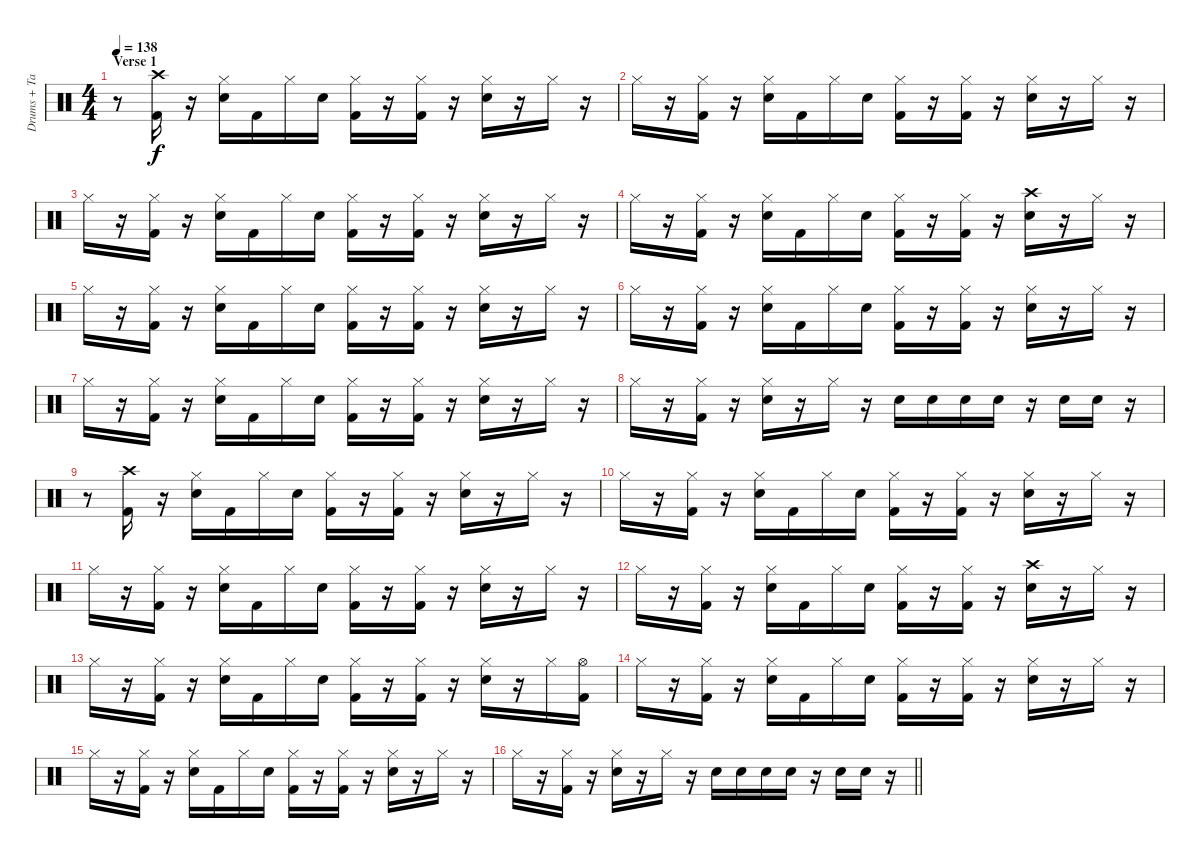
\track ("Drums + Tambourine" "Drums + Ta") {instrument percussion}
\staff {score}
\articulation defaults
\ts (4 4)
\section ("" "Verse 1")
\tempo 138
\clef neutral
\ks c
r.8{dy f} ("Crash high (hit)" "Kick (hit) 2").16 r.16 ("Hi-Hat (closed)" "Electric Snare (hit)").16 "Kick (hit) 2".16 "Hi-Hat (closed)".16 "Electric Snare (hit)".16 ("Hi-Hat (closed)" "Kick (hit) 2").16 r.16 ("Hi-Hat (closed)" "Kick (hit) 2").16 r.16 ("Hi-Hat (closed)" "Electric Snare (hit)").16 r.16 "Hi-Hat (closed)".16 r.16 |
"Hi-Hat (closed)".16 r.16 ("Hi-Hat (closed)" "Kick (hit) 2").16 r.16 ("Hi-Hat (closed)" "Electric Snare (hit)").16 "Kick (hit) 2".16 "Hi-Hat (closed)".16 "Electric Snare (hit)".16 ("Hi-Hat (closed)" "Kick (hit) 2").16 r.16 ("Hi-Hat (closed)" "Kick (hit) 2").16 r.16 ("Hi-Hat (closed)" "Electric Snare (hit)").16 r.16 "Hi-Hat (closed)".16 r.16 |
"Hi-Hat (closed)".16 r.16 ("Hi-Hat (closed)" "Kick (hit) 2").16 r.16 ("Hi-Hat (closed)" "Electric Snare (hit)").16 "Kick (hit) 2".16 "Hi-Hat (closed)".16 "Electric Snare (hit)".16 ("Hi-Hat (closed)" "Kick (hit) 2").16 r.16 ("Hi-Hat (closed)" "Kick (hit) 2").16 r.16 ("Hi-Hat (closed)" "Electric Snare (hit)").16 r.16 "Hi-Hat (closed)".16 r.16 |
"Hi-Hat (closed)".16 r.16 ("Hi-Hat (closed)" "Kick (hit) 2").16 r.16 ("Hi-Hat (closed)" "Electric Snare (hit)").16 "Kick (hit) 2".16 "Hi-Hat (closed)".16 "Electric Snare (hit)".16 ("Hi-Hat (closed)" "Kick (hit) 2").16 r.16 ("Hi-Hat (closed)" "Kick (hit) 2").16 r.16 ("Crash high (hit)" "Electric Snare (hit)").16 r.16 "Hi-Hat (closed)".16 r.16 |
"Hi-Hat (closed)".16 r.16 ("Hi-Hat (closed)" "Kick (hit) 2").16 r.16 ("Hi-Hat (closed)" "Electric Snare (hit)").16 "Kick (hit) 2".16 "Hi-Hat (closed)".16 "Electric Snare (hit)".16 ("Hi-Hat (closed)" "Kick (hit) 2").16 r.16 ("Hi-Hat (closed)" "Kick (hit) 2").16 r.16 ("Hi-Hat (closed)" "Electric Snare (hit)").16 r.16 "Hi-Hat (closed)".16 r.16 |
"Hi-Hat (closed)".16 r.16 ("Hi-Hat (closed)" "Kick (hit) 2").16 r.16 ("Hi-Hat (closed)" "Electric Snare (hit)").16 "Kick (hit) 2".16 "Hi-Hat (closed)".16 "Electric Snare (hit)".16 ("Hi-Hat (closed)" "Kick (hit) 2").16 r.16 ("Hi-Hat (closed)" "Kick (hit) 2").16 r.16 ("Hi-Hat (closed)" "Electric Snare (hit)").16 r.16 "Hi-Hat (closed)".16 r.16 |
"Hi-Hat (closed)".16 r.16 ("Hi-Hat (closed)" "Kick (hit) 2").16 r.16 ("Hi-Hat (closed)" "Electric Snare (hit)").16 "Kick (hit) 2".16 "Hi-Hat (closed)".16 "Electric Snare (hit)".16 ("Hi-Hat (closed)" "Kick (hit) 2").16 r.16 ("Hi-Hat (closed)" "Kick (hit) 2").16 r.16 ("Hi-Hat (closed)" "Electric Snare (hit)").16 r.16 "Hi-Hat (closed)".16 r.16 |
"Hi-Hat (closed)".16 r.16 ("Hi-Hat (closed)" "Kick (hit) 2").16 r.16 ("Hi-Hat (closed)" "Electric Snare (hit)").16 r.16 "Hi-Hat (closed)".16 r.16 "Electric Snare (hit)".16 "Electric Snare (hit)".16 "Electric Snare (hit)".16 "Electric Snare (hit)".16 r.16 "Electric Snare (hit)".16 "Electric Snare (hit)".16 r.16 |
r.8 ("Crash high (hit)" "Kick (hit) 2").16 r.16 ("Hi-Hat (closed)" "Electric Snare (hit)").16 "Kick (hit) 2".16 "Hi-Hat (closed)".16 "Electric Snare (hit)".16 ("Hi-Hat (closed)" "Kick (hit) 2").16 r.16 ("Hi-Hat (closed)" "Kick (hit) 2").16 r.16 ("Hi-Hat (closed)" "Electric Snare (hit)").16 r.16 "Hi-Hat (closed)".16 r.16 |
"Hi-Hat (closed)".16 r.16 ("Hi-Hat (closed)" "Kick (hit) 2").16 r.16 ("Hi-Hat (closed)" "Electric Snare (hit)").16 "Kick (hit) 2".16 "Hi-Hat (closed)".16 "Electric Snare (hit)".16 ("Hi-Hat (closed)" "Kick (hit) 2").16 r.16 ("Hi-Hat (closed)" "Kick (hit) 2").16 r.16 ("Hi-Hat (closed)" "Electric Snare (hit)").16 r.16 "Hi-Hat (closed)".16 r.16 |
"Hi-Hat (closed)".16 r.16 ("Hi-Hat (closed)" "Kick (hit) 2").16 r.16 ("Hi-Hat (closed)" "Electric Snare (hit)").16 "Kick (hit) 2".16 "Hi-Hat (closed)".16 "Electric Snare (hit)".16 ("Hi-Hat (closed)" "Kick (hit) 2").16 r.16 ("Hi-Hat (closed)" "Kick (hit) 2").16 r.16 ("Hi-Hat (closed)" "Electric Snare (hit)").16 r.16 "Hi-Hat (closed)".16 r.16 |
"Hi-Hat (closed)".16 r.16 ("Hi-Hat (closed)" "Kick (hit) 2").16 r.16 ("Hi-Hat (closed)" "Electric Snare (hit)").16 "Kick (hit) 2".16 "Hi-Hat (closed)".16 "Electric Snare (hit)".16 ("Hi-Hat (closed)" "Kick (hit) 2").16 r.16 ("Hi-Hat (closed)" "Kick (hit) 2").16 r.16 ("Crash high (hit)" "Electric Snare (hit)").16 r.16 "Hi-Hat (closed)".16 r.16 |
"Hi-Hat (closed)".16 r.16 ("Hi-Hat (closed)" "Kick (hit) 2").16 r.16 ("Hi-Hat (closed)" "Electric Snare (hit)").16 "Kick (hit) 2".16 "Hi-Hat (closed)".16 "Electric Snare (hit)".16 ("Hi-Hat (closed)" "Kick (hit) 2").16 r.16 ("Hi-Hat (closed)" "Kick (hit) 2").16 r.16 ("Hi-Hat (closed)" "Electric Snare (hit)").16 r.16 "Hi-Hat (closed)".16 ("Hi-Hat (open)" "Kick (hit) 2").16 |
"Hi-Hat (closed)".16 r.16 ("Hi-Hat (closed)" "Kick (hit) 2").16 r.16 ("Hi-Hat (closed)" "Electric Snare (hit)").16 "Kick (hit) 2".16 "Hi-Hat (closed)".16 "Electric Snare (hit)".16 ("Hi-Hat (closed)" "Kick (hit) 2").16 r.16 ("Hi-Hat (closed)" "Kick (hit) 2").16 r.16 ("Hi-Hat (closed)" "Electric Snare (hit)").16 r.16 "Hi-Hat (closed)".16 r.16 |
"Hi-Hat (closed)".16 r.16 ("Hi-Hat (closed)" "Kick (hit) 2").16 r.16 ("Hi-Hat (closed)" "Electric Snare (hit)").16 "Kick (hit) 2".16 "Hi-Hat (closed)".16 "Electric Snare (hit)".16 ("Hi-Hat (closed)" "Kick (hit) 2").16 r.16 ("Hi-Hat (closed)" "Kick (hit) 2").16 r.16 ("Hi-Hat (closed)" "Electric Snare (hit)").16 r.16 "Hi-Hat (closed)".16 r.16 |
\barLineRight lightlight "Hi-Hat (closed)".16
r.16 ("Hi-Hat (closed)" "Kick (hit) 2").16 r.16 ("Hi-Hat (closed)" "Electric Snare (hit)").16 r.16 "Hi-Hat (closed)".16 r.16 "Electric Snare (hit)".16 "Electric Snare (hit)".16 "Electric Snare (hit)".16 "Electric Snare (hit)".16 r.16 "Electric Snare (hit)".16 "Electric Snare (hit)".16 r.16
